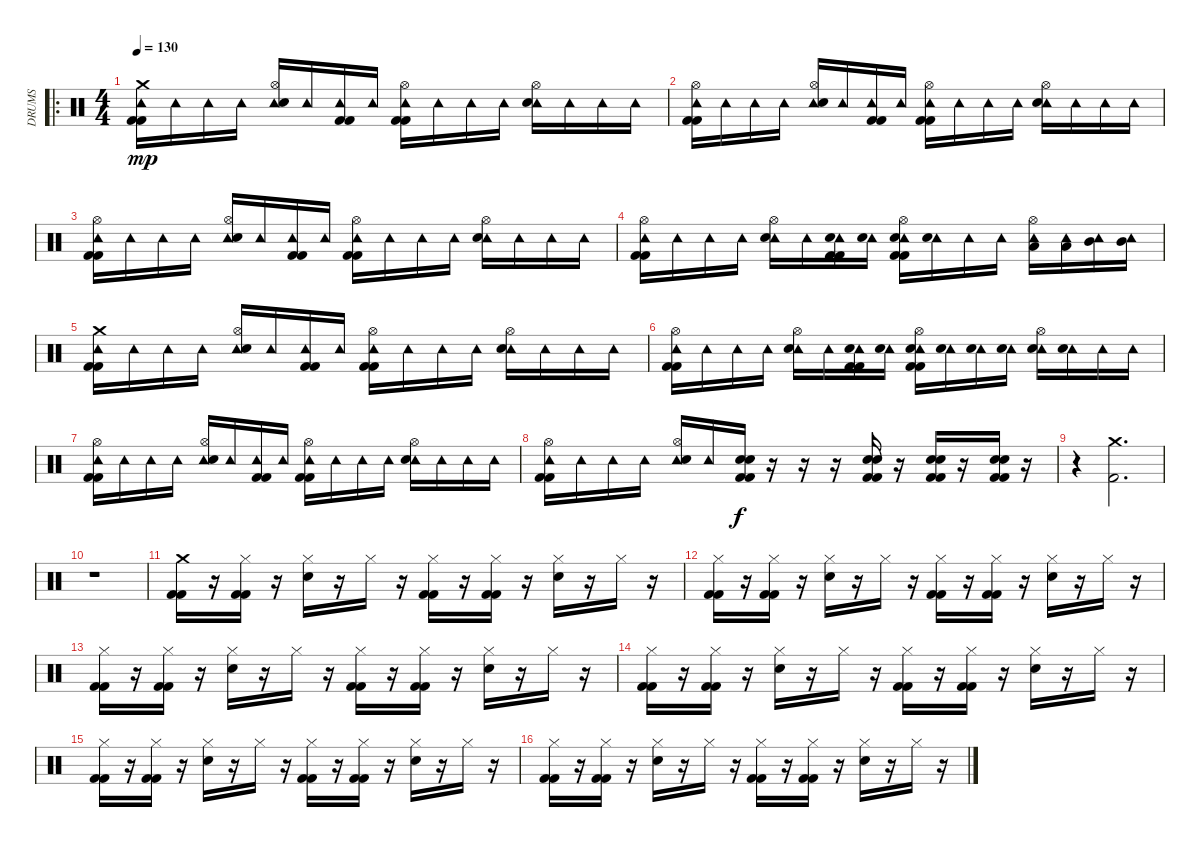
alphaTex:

\track ("DRUMS" "DRUMS") {instrument percussion}
\staff {score}
\articulation defaults
\ro
\ts (4 4)
\tempo 130
\clef neutral
\ks c
("Crash medium (hit)" "Tambourine (hit)" "Kick (hit) 2" "Kick (hit) 2").16{dy mp} "Tambourine (hit)".16 "Tambourine (hit)".16 "Tambourine (hit)".16 ("Hi-Hat (open)" "Tambourine (hit)" "Snare (hit) 2").16 "Tambourine (hit)".16 ("Tambourine (hit)" "Kick (hit) 2" "Kick (hit) 2").16 "Tambourine (hit)".16 ("Hi-Hat (open)" "Tambourine (hit)" "Kick (hit) 2" "Kick (hit) 2").16 "Tambourine (hit)".16 "Tambourine (hit)".16 "Tambourine (hit)".16 ("Hi-Hat (open)" "Tambourine (hit)" "Snare (hit) 2").16 "Tambourine (hit)".16 "Tambourine (hit)".16 "Tambourine (hit)".16 |
("Hi-Hat (open)" "Tambourine (hit)" "Kick (hit) 2" "Kick (hit) 2").16 "Tambourine (hit)".16 "Tambourine (hit)".16 "Tambourine (hit)".16 ("Hi-Hat (open)" "Tambourine (hit)" "Snare (hit) 2").16 "Tambourine (hit)".16 ("Tambourine (hit)" "Kick (hit) 2" "Kick (hit) 2").16 "Tambourine (hit)".16 ("Hi-Hat (open)" "Tambourine (hit)" "Kick (hit) 2" "Kick (hit) 2").16 "Tambourine (hit)".16 "Tambourine (hit)".16 "Tambourine (hit)".16 ("Hi-Hat (open)" "Tambourine (hit)" "Snare (hit) 2").16 "Tambourine (hit)".16 "Tambourine (hit)".16 "Tambourine (hit)".16 |
("Hi-Hat (open)" "Tambourine (hit)" "Kick (hit) 2" "Kick (hit) 2").16 "Tambourine (hit)".16 "Tambourine (hit)".16 "Tambourine (hit)".16 ("Hi-Hat (open)" "Tambourine (hit)" "Snare (hit) 2").16 "Tambourine (hit)".16 ("Tambourine (hit)" "Kick (hit) 2" "Kick (hit) 2").16 "Tambourine (hit)".16 ("Hi-Hat (open)" "Tambourine (hit)" "Kick (hit) 2" "Kick (hit) 2").16 "Tambourine (hit)".16 "Tambourine (hit)".16 "Tambourine (hit)".16 ("Hi-Hat (open)" "Tambourine (hit)" "Snare (hit) 2").16 "Tambourine (hit)".16 "Tambourine (hit)".16 "Tambourine (hit)".16 |
("Hi-Hat (open)" "Tambourine (hit)" "Kick (hit) 2" "Kick (hit) 2").16 "Tambourine (hit)".16 "Tambourine (hit)".16 "Tambourine (hit)".16 ("Hi-Hat (open)" "Tambourine (hit)" "Snare (hit) 2").16 "Tambourine (hit)".16 ("Tambourine (hit)" "Electric Snare (hit)" "Kick (hit) 2" "Kick (hit) 2").16 ("Tambourine (hit)" "Electric Snare (hit)").16 ("Hi-Hat (open)" "Tambourine (hit)" "Electric Snare (hit)" "Kick (hit) 2" "Kick (hit) 2").16 ("Tambourine (hit)" "Snare (hit) 2").16 "Tambourine (hit)".16 "Tambourine (hit)".16 ("Hi-Hat (open)" "Tambourine (hit)" "Low Tom (hit)").16 ("Tambourine (hit)" "Low Tom (hit)").16 ("Tambourine (hit)" "Mid Tom (hit)").16 ("Tambourine (hit)" "Mid Tom (hit)").16 |
("Crash medium (hit)" "Tambourine (hit)" "Kick (hit) 2" "Kick (hit) 2").16 "Tambourine (hit)".16 "Tambourine (hit)".16 "Tambourine (hit)".16 ("Hi-Hat (open)" "Tambourine (hit)" "Snare (hit) 2").16 "Tambourine (hit)".16 ("Tambourine (hit)" "Kick (hit) 2" "Kick (hit) 2").16 "Tambourine (hit)".16 ("Hi-Hat (open)" "Tambourine (hit)" "Kick (hit) 2" "Kick (hit) 2").16 "Tambourine (hit)".16 "Tambourine (hit)".16 "Tambourine (hit)".16 ("Hi-Hat (open)" "Tambourine (hit)" "Snare (hit) 2").16 "Tambourine (hit)".16 "Tambourine (hit)".16 "Tambourine (hit)".16 |
("Hi-Hat (open)" "Tambourine (hit)" "Kick (hit) 2" "Kick (hit) 2").16 "Tambourine (hit)".16 "Tambourine (hit)".16 "Tambourine (hit)".16 ("Hi-Hat (open)" "Tambourine (hit)" "Snare (hit) 2").16 "Tambourine (hit)".16 ("Tambourine (hit)" "Electric Snare (hit)" "Kick (hit) 2" "Kick (hit) 2").16 ("Tambourine (hit)" "Electric Snare (hit)").16 ("Hi-Hat (open)" "Tambourine (hit)" "Electric Snare (hit)" "Kick (hit) 2" "Kick (hit) 2").16 ("Tambourine (hit)" "Snare (hit) 2").16 ("Tambourine (hit)" "Electric Snare (hit)").16 ("Tambourine (hit)" "Electric Snare (hit)").16 ("Hi-Hat (open)" "Tambourine (hit)" "Electric Snare (hit)").16 ("Tambourine (hit)" "Snare (hit) 2").16 "Tambourine (hit)".16 "Tambourine (hit)".16 |
("Hi-Hat (open)" "Tambourine (hit)" "Kick (hit) 2" "Kick (hit) 2").16 "Tambourine (hit)".16 "Tambourine (hit)".16 "Tambourine (hit)".16 ("Hi-Hat (open)" "Tambourine (hit)" "Snare (hit) 2").16 "Tambourine (hit)".16 ("Tambourine (hit)" "Kick (hit) 2" "Kick (hit) 2").16 "Tambourine (hit)".16 ("Hi-Hat (open)" "Tambourine (hit)" "Kick (hit) 2" "Kick (hit) 2").16 "Tambourine (hit)".16 "Tambourine (hit)".16 "Tambourine (hit)".16 ("Hi-Hat (open)" "Tambourine (hit)" "Snare (hit) 2").16 "Tambourine (hit)".16 "Tambourine (hit)".16 "Tambourine (hit)".16 |
("Hi-Hat (open)" "Tambourine (hit)" "Kick (hit) 2" "Kick (hit) 2").16 "Tambourine (hit)".16 "Tambourine (hit)".16 "Tambourine (hit)".16 ("Hi-Hat (open)" "Tambourine (hit)" "Snare (hit) 2").16 "Tambourine (hit)".16 ("Electric Snare (hit)" "Snare (hit) 2" "Kick (hit) 2" "Kick (hit) 2").16{dy f} r.16 r.16 r.16 ("Electric Snare (hit)" "Snare (hit) 2" "Kick (hit) 2" "Kick (hit) 2").16 r.16 ("Electric Snare (hit)" "Snare (hit) 2" "Kick (hit) 2" "Kick (hit) 2").16 r.16 ("Electric Snare (hit)" "Snare (hit) 2" "Kick (hit) 2" "Kick (hit) 2").16 r.16 |
r.4 ("Crash medium (hit)" "Kick (hit) 2").2{d} |
r.1 |
("Crash medium (hit)" "Kick (hit) 2" "Kick (hit) 2").16 r.16 ("Hi-Hat (closed)" "Kick (hit) 2" "Kick (hit) 2").16 r.16 ("Hi-Hat (closed)" "Snare (hit) 2").16 r.16 "Hi-Hat (closed)".16 r.16 ("Hi-Hat (closed)" "Kick (hit) 2" "Kick (hit) 2").16 r.16 ("Hi-Hat (closed)" "Kick (hit) 2" "Kick (hit) 2").16 r.16 ("Hi-Hat (closed)" "Snare (hit) 2").16 r.16 "Hi-Hat (closed)".16 r.16 |
("Hi-Hat (closed)" "Kick (hit) 2" "Kick (hit) 2").16 r.16 ("Hi-Hat (closed)" "Kick (hit) 2" "Kick (hit) 2").16 r.16 ("Hi-Hat (closed)" "Snare (hit) 2").16 r.16 "Hi-Hat (closed)".16 r.16 ("Hi-Hat (closed)" "Kick (hit) 2" "Kick (hit) 2").16 r.16 ("Hi-Hat (closed)" "Kick (hit) 2" "Kick (hit) 2").16 r.16 ("Hi-Hat (closed)" "Snare (hit) 2").16 r.16 "Hi-Hat (closed)".16 r.16 |
("Hi-Hat (closed)" "Kick (hit) 2" "Kick (hit) 2").16 r.16 ("Hi-Hat (closed)" "Kick (hit) 2" "Kick (hit) 2").16 r.16 ("Hi-Hat (closed)" "Snare (hit) 2").16 r.16 "Hi-Hat (closed)".16 r.16 ("Hi-Hat (closed)" "Kick (hit) 2" "Kick (hit) 2").16 r.16 ("Hi-Hat (closed)" "Kick (hit) 2" "Kick (hit) 2").16 r.16 ("Hi-Hat (closed)" "Snare (hit) 2").16 r.16 "Hi-Hat (closed)".16 r.16 |
("Hi-Hat (closed)" "Kick (hit) 2" "Kick (hit) 2").16 r.16 ("Hi-Hat (closed)" "Kick (hit) 2" "Kick (hit) 2").16 r.16 ("Hi-Hat (closed)" "Snare (hit) 2").16 r.16 "Hi-Hat (closed)".16 r.16 ("Hi-Hat (closed)" "Kick (hit) 2" "Kick (hit) 2").16 r.16 ("Hi-Hat (closed)" "Kick (hit) 2" "Kick (hit) 2").16 r.16 ("Hi-Hat (closed)" "Snare (hit) 2").16 r.16 "Hi-Hat (closed)".16 r.16 |
("Hi-Hat (closed)" "Kick (hit) 2" "Kick (hit) 2").16 r.16 ("Hi-Hat (closed)" "Kick (hit) 2" "Kick (hit) 2").16 r.16 ("Hi-Hat (closed)" "Snare (hit) 2").16 r.16 "Hi-Hat (closed)".16 r.16 ("Hi-Hat (closed)" "Kick (hit) 2" "Kick (hit) 2").16 r.16 ("Hi-Hat (closed)" "Kick (hit) 2" "Kick (hit) 2").16 r.16 ("Hi-Hat (closed)" "Snare (hit) 2").16 r.16 "Hi-Hat (closed)".16 r.16 |
("Hi-Hat (closed)" "Kick (hit) 2" "Kick (hit) 2").16 r.16 ("Hi-Hat (closed)" "Kick (hit) 2" "Kick (hit) 2").16 r.16 ("Hi-Hat (closed)" "Snare (hit) 2").16 r.16 "Hi-Hat (closed)".16 r.16 ("Hi-Hat (closed)" "Kick (hit) 2" "Kick (hit) 2").16 r.16 ("Hi-Hat (closed)" "Kick (hit) 2" "Kick (hit) 2").16 r.16 ("Hi-Hat (closed)" "Snare (hit) 2").16 r.16 "Hi-Hat (closed)".16 r.16
